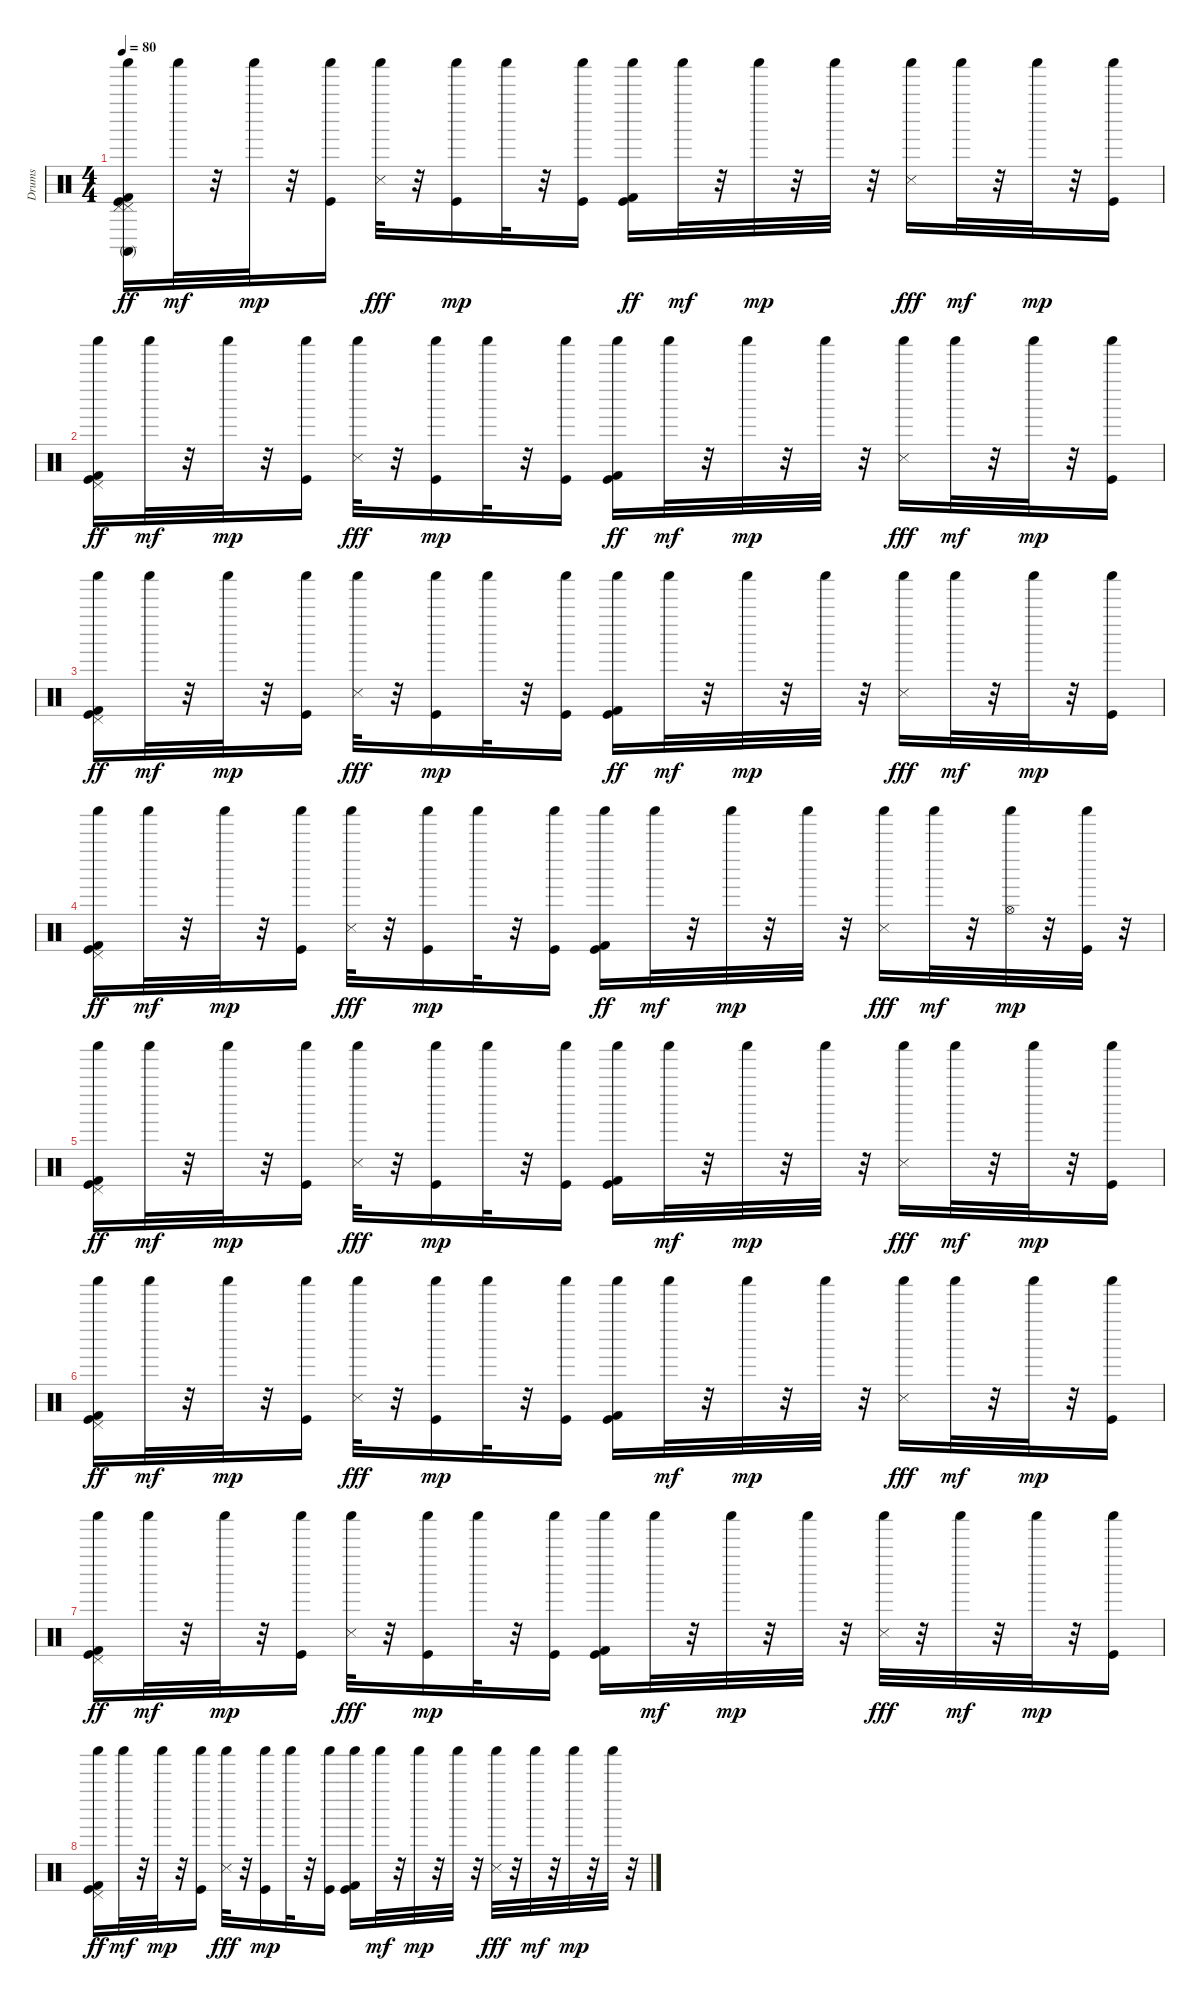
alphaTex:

\track ("Drums" "Drums") {instrument percussion}
\staff {score}
\articulation defaults
\ts (4 4)
\tempo 80
\clef neutral
\ks c
("Pedal Hi-Hat (hit)" "Pedal Hi-Hat (hit)" "Conga high (mute)" "Shaker (hit)" "Kick (hit)" "Kick (hit) 2").16{dy ff} "Shaker (hit)".32{dy mf} r.32 "Shaker (hit)".32{dy mp} r.32 ("Shaker (hit)" "Kick (hit)").16 ("Snare (side stick) 3" "Shaker (hit)").32{dy fff} r.32 ("Shaker (hit)" "Kick (hit)").16{dy mp} "Shaker (hit)".32 r.32 ("Shaker (hit)" "Kick (hit)").16 ("Shaker (hit)" "Kick (hit)" "Kick (hit) 2").16{dy ff} "Shaker (hit)".32{dy mf} r.32 "Shaker (hit)".32{dy mp} r.32 "Shaker (hit)".32 r.32 ("Shaker (hit)" "Snare (side stick) 3").16{dy fff} "Shaker (hit)".32{dy mf} r.32 "Shaker (hit)".32{dy mp} r.32 ("Shaker (hit)" "Kick (hit)").16 |
("Shaker (hit)" "Kick (hit)" "Kick (hit) 2" "Pedal Hi-Hat (hit)").16{dy ff} "Shaker (hit)".32{dy mf} r.32 "Shaker (hit)".32{dy mp} r.32 ("Shaker (hit)" "Kick (hit)").16 ("Snare (side stick) 3" "Shaker (hit)").32{dy fff} r.32 ("Shaker (hit)" "Kick (hit)").16{dy mp} "Shaker (hit)".32 r.32 ("Shaker (hit)" "Kick (hit)").16 ("Shaker (hit)" "Kick (hit)" "Kick (hit) 2").16{dy ff} "Shaker (hit)".32{dy mf} r.32 "Shaker (hit)".32{dy mp} r.32 "Shaker (hit)".32 r.32 ("Shaker (hit)" "Snare (side stick) 3").16{dy fff} "Shaker (hit)".32{dy mf} r.32 "Shaker (hit)".32{dy mp} r.32 ("Shaker (hit)" "Kick (hit)").16 |
("Shaker (hit)" "Kick (hit)" "Kick (hit) 2" "Pedal Hi-Hat (hit)").16{dy ff} "Shaker (hit)".32{dy mf} r.32 "Shaker (hit)".32{dy mp} r.32 ("Shaker (hit)" "Kick (hit)").16 ("Shaker (hit)" "Snare (side stick) 3").32{dy fff} r.32 ("Shaker (hit)" "Kick (hit)").16{dy mp} "Shaker (hit)".32 r.32 ("Shaker (hit)" "Kick (hit)").16 ("Shaker (hit)" "Kick (hit)" "Kick (hit) 2").16{dy ff} "Shaker (hit)".32{dy mf} r.32 "Shaker (hit)".32{dy mp} r.32 "Shaker (hit)".32 r.32 ("Shaker (hit)" "Snare (side stick) 3").16{dy fff} "Shaker (hit)".32{dy mf} r.32 "Shaker (hit)".32{dy mp} r.32 ("Shaker (hit)" "Kick (hit)").16 |
("Shaker (hit)" "Kick (hit)" "Kick (hit) 2" "Pedal Hi-Hat (hit)").16{dy ff} "Shaker (hit)".32{dy mf} r.32 "Shaker (hit)".32{dy mp} r.32 ("Shaker (hit)" "Kick (hit)").16 ("Shaker (hit)" "Snare (side stick) 3").32{dy fff} r.32 ("Shaker (hit)" "Kick (hit)").16{dy mp} "Shaker (hit)".32 r.32 ("Shaker (hit)" "Kick (hit)").16 ("Shaker (hit)" "Kick (hit)" "Kick (hit) 2").16{dy ff} "Shaker (hit)".32{dy mf} r.32 "Shaker (hit)".32{dy mp} r.32 "Shaker (hit)".32 r.32 ("Shaker (hit)" "Snare (side stick) 3").16{dy fff} "Shaker (hit)".32{dy mf} r.32 ("Hi-Hat (open)" "Shaker (hit)").32{dy mp} r.32 ("Shaker (hit)" "Kick (hit)").32 r.32 |
("Shaker (hit)" "Kick (hit) 2" "Kick (hit)" "Pedal Hi-Hat (hit)").16{dy ff} "Shaker (hit)".32{dy mf} r.32 "Shaker (hit)".32{dy mp} r.32 ("Shaker (hit)" "Kick (hit)").16 ("Snare (side stick) 3" "Shaker (hit)").32{dy fff} r.32 ("Shaker (hit)" "Kick (hit)").16{dy mp} "Shaker (hit)".32 r.32 ("Shaker (hit)" "Kick (hit)").16 ("Shaker (hit)" "Kick (hit) 2" "Kick (hit)").16 "Shaker (hit)".32{dy mf} r.32 "Shaker (hit)".32{dy mp} r.32 "Shaker (hit)".32 r.32 ("Shaker (hit)" "Snare (side stick) 3").16{dy fff} "Shaker (hit)".32{dy mf} r.32 "Shaker (hit)".32{dy mp} r.32 ("Shaker (hit)" "Kick (hit)").16 |
("Shaker (hit)" "Kick (hit) 2" "Kick (hit)" "Pedal Hi-Hat (hit)").16{dy ff} "Shaker (hit)".32{dy mf} r.32 "Shaker (hit)".32{dy mp} r.32 ("Shaker (hit)" "Kick (hit)").16 ("Shaker (hit)" "Snare (side stick) 3").32{dy fff} r.32 ("Shaker (hit)" "Kick (hit)").16{dy mp} "Shaker (hit)".32 r.32 ("Shaker (hit)" "Kick (hit)").16 ("Shaker (hit)" "Kick (hit) 2" "Kick (hit)").16 "Shaker (hit)".32{dy mf} r.32 "Shaker (hit)".32{dy mp} r.32 "Shaker (hit)".32 r.32 ("Shaker (hit)" "Snare (side stick) 3").16{dy fff} "Shaker (hit)".32{dy mf} r.32 "Shaker (hit)".32{dy mp} r.32 ("Shaker (hit)" "Kick (hit)").16 |
("Shaker (hit)" "Kick (hit) 2" "Kick (hit)" "Pedal Hi-Hat (hit)").16{dy ff} "Shaker (hit)".32{dy mf} r.32 "Shaker (hit)".32{dy mp} r.32 ("Shaker (hit)" "Kick (hit)").16 ("Shaker (hit)" "Snare (side stick) 3").32{dy fff} r.32 ("Shaker (hit)" "Kick (hit)").16{dy mp} "Shaker (hit)".32 r.32 ("Shaker (hit)" "Kick (hit)").16 ("Shaker (hit)" "Kick (hit) 2" "Kick (hit)").16 "Shaker (hit)".32{dy mf} r.32 "Shaker (hit)".32{dy mp} r.32 "Shaker (hit)".32 r.32 ("Shaker (hit)" "Snare (side stick) 3").32{dy fff} r.32 "Shaker (hit)".32{dy mf} r.32 "Shaker (hit)".32{dy mp} r.32 ("Shaker (hit)" "Kick (hit)").16 |
("Shaker (hit)" "Kick (hit) 2" "Kick (hit)" "Pedal Hi-Hat (hit)").16{dy ff} "Shaker (hit)".32{dy mf} r.32 "Shaker (hit)".32{dy mp} r.32 ("Shaker (hit)" "Kick (hit)").16 ("Shaker (hit)" "Snare (side stick) 3").32{dy fff} r.32 ("Shaker (hit)" "Kick (hit)").16{dy mp} "Shaker (hit)".32 r.32 ("Shaker (hit)" "Kick (hit)").16 ("Shaker (hit)" "Kick (hit) 2" "Kick (hit)").16 "Shaker (hit)".32{dy mf} r.32 "Shaker (hit)".32{dy mp} r.32 "Shaker (hit)".32 r.32 ("Shaker (hit)" "Snare (side stick) 3").32{dy fff} r.32 "Shaker (hit)".32{dy mf} r.32 "Shaker (hit)".32{dy mp} r.32 "Shaker (hit)".32 r.32
